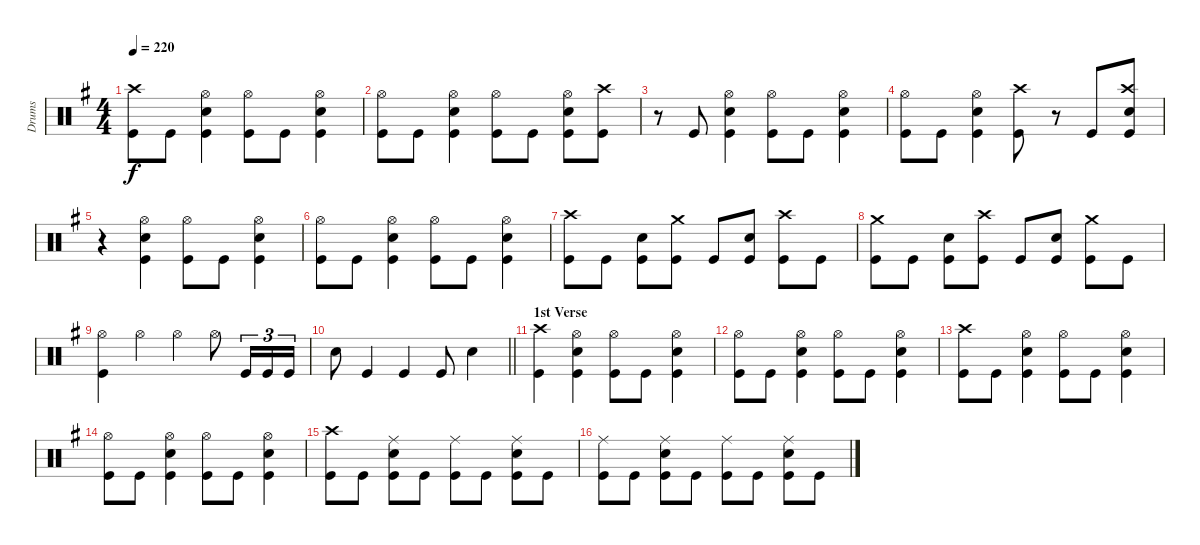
\track ("Drums" "Drums") {instrument percussion}
\staff {score}
\articulation defaults
\ts (4 4)
\tempo 220
\clef neutral
\ks eminor
("Kick (hit)" "Crash high (hit)").8{dy f} "Kick (hit)".8 ("Kick (hit)" "Snare (hit) 2" "Hi-Hat (open)").4 ("Kick (hit)" "Hi-Hat (open)").8 "Kick (hit)".8 ("Kick (hit)" "Snare (hit) 2" "Hi-Hat (open)").4 |
("Kick (hit)" "Hi-Hat (open)").8 "Kick (hit)".8 ("Kick (hit)" "Snare (hit) 2" "Hi-Hat (open)").4 ("Kick (hit)" "Hi-Hat (open)").8 "Kick (hit)".8 ("Kick (hit)" "Snare (hit) 2" "Hi-Hat (open)").8 ("Crash high (hit)" "Kick (hit)").8 |
r.8 "Kick (hit)".8 ("Kick (hit)" "Hi-Hat (open)" "Snare (hit) 2").4 ("Kick (hit)" "Hi-Hat (open)").8 "Kick (hit)".8 ("Kick (hit)" "Hi-Hat (open)" "Snare (hit) 2").4 |
("Kick (hit)" "Hi-Hat (open)").8 "Kick (hit)".8 ("Kick (hit)" "Snare (hit) 2" "Hi-Hat (open)").4 ("Kick (hit)" "Crash high (hit)").8 r.8 "Kick (hit)".8 ("Kick (hit)" "Crash high (hit)" "Snare (hit) 2").8 |
r.4 ("Kick (hit)" "Hi-Hat (open)" "Snare (hit) 2").4 ("Kick (hit)" "Hi-Hat (open)").8 "Kick (hit)".8 ("Kick (hit)" "Hi-Hat (open)" "Snare (hit) 2").4 |
("Kick (hit)" "Hi-Hat (open)").8 "Kick (hit)".8 ("Kick (hit)" "Snare (hit) 2" "Hi-Hat (open)").4 ("Kick (hit)" "Hi-Hat (open)").8 "Kick (hit)".8 ("Kick (hit)" "Snare (hit) 2" "Hi-Hat (open)").4 |
("Crash high (hit)" "Kick (hit)").8 "Kick (hit)".8 ("Kick (hit)" "Snare (hit) 2").8 ("Crash medium (hit)" "Kick (hit)").8 "Kick (hit)".8 ("Kick (hit)" "Snare (hit) 2").8 ("Crash high (hit)" "Kick (hit)").8 "Kick (hit)".8 |
("Crash medium (hit)" "Kick (hit)").8 "Kick (hit)".8 ("Kick (hit)" "Snare (hit) 2").8 ("Crash high (hit)" "Kick (hit)").8 "Kick (hit)".8 ("Kick (hit)" "Snare (hit) 2").8 ("Crash medium (hit)" "Kick (hit)").8 "Kick (hit)".8 |
("Hi-Hat (open)" "Kick (hit)").4 "Hi-Hat (open)".4 "Hi-Hat (open)".4 "Hi-Hat (open)".8 "Kick (hit)".16{tu (3 2)} "Kick (hit)".16{tu (3 2)} "Kick (hit)".16{tu (3 2)} |
\barLineRight lightlight "Snare (hit) 2".8 "Kick (hit)".4 "Kick (hit)".4 "Kick (hit)".8 "Snare (hit) 2".4
|
\section ("" "1st Verse")
("Kick (hit)" "Crash high (hit)").4 ("Snare (hit) 2" "Kick (hit)" "Hi-Hat (open)").4 ("Kick (hit)" "Hi-Hat (open)").8 "Kick (hit)".8 ("Kick (hit)" "Snare (hit) 2" "Hi-Hat (open)").4 |
("Kick (hit)" "Hi-Hat (open)").8 "Kick (hit)".8 ("Kick (hit)" "Snare (hit) 2" "Hi-Hat (open)").4 ("Kick (hit)" "Hi-Hat (open)").8 "Kick (hit)".8 ("Kick (hit)" "Snare (hit) 2" "Hi-Hat (open)").4 |
("Kick (hit)" "Crash high (hit)").8 "Kick (hit)".8 ("Snare (hit) 2" "Kick (hit)" "Hi-Hat (open)").4 ("Kick (hit)" "Hi-Hat (open)").8 "Kick (hit)".8 ("Kick (hit)" "Snare (hit) 2" "Hi-Hat (open)").4 |
("Kick (hit)" "Hi-Hat (open)").8 "Kick (hit)".8 ("Kick (hit)" "Snare (hit) 2" "Hi-Hat (open)").4 ("Kick (hit)" "Hi-Hat (open)").8 "Kick (hit)".8 ("Kick (hit)" "Snare (hit) 2" "Hi-Hat (open)").4 |
("Kick (hit)" "Crash high (hit)").8 "Kick (hit)".8 ("Snare (hit) 2" "Kick (hit)" "Ride (middle)").8 "Kick (hit)".8 ("Kick (hit)" "Ride (middle)").8 "Kick (hit)".8 ("Kick (hit)" "Snare (hit) 2" "Ride (middle)").8 "Kick (hit)".8 |
("Kick (hit)" "Ride (middle)").8 "Kick (hit)".8 ("Kick (hit)" "Snare (hit) 2" "Ride (middle)").8 "Kick (hit)".8 ("Kick (hit)" "Ride (middle)").8 "Kick (hit)".8 ("Kick (hit)" "Snare (hit) 2" "Ride (middle)").8 "Kick (hit)".8
